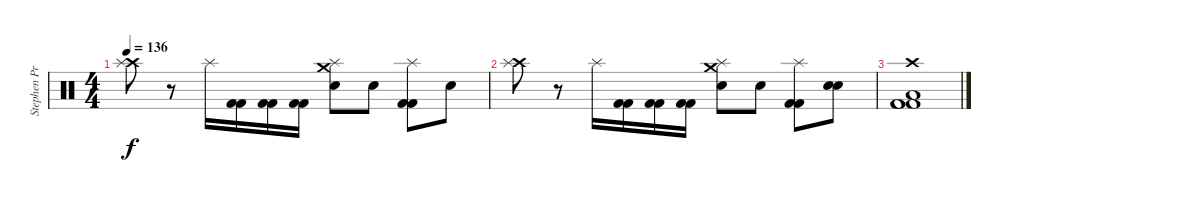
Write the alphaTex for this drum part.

\track ("Stephen Priestly  (Drums)" "Stephen Pr") {instrument percussion}
\staff {score}
\articulation defaults
\ts (4 4)
\tempo 136
\clef neutral
\ks c
("Crash high (hit)" "Splash (hit)").8{dy f} r.8 "Splash (hit)".16 ("Kick (hit) 2" "Kick (hit) 2").16 ("Kick (hit) 2" "Kick (hit) 2").16 ("Kick (hit) 2" "Kick (hit) 2").16 ("Crash medium (hit)" "Splash (hit)" "Electric Snare (hit)").8 "Snare (hit)".8 ("Splash (hit)" "Kick (hit) 2" "Kick (hit) 2").8 "Snare (hit)".8 |
("Crash high (hit)" "Splash (hit)").8 r.8 "Splash (hit)".16 ("Kick (hit) 2" "Kick (hit) 2").16 ("Kick (hit) 2" "Kick (hit) 2").16 ("Kick (hit) 2" "Kick (hit) 2").16 ("Crash medium (hit)" "Splash (hit)" "Electric Snare (hit)").8 "Snare (hit)".8 ("Splash (hit)" "Kick (hit) 2" "Kick (hit) 2").8 ("Snare (hit)" "Electric Snare (hit)").8 |
("Kick (hit) 2" "Low Floor Tom (hit)" "Crash high (hit)" "Kick (hit) 2" "Kick (hit) 2").1
